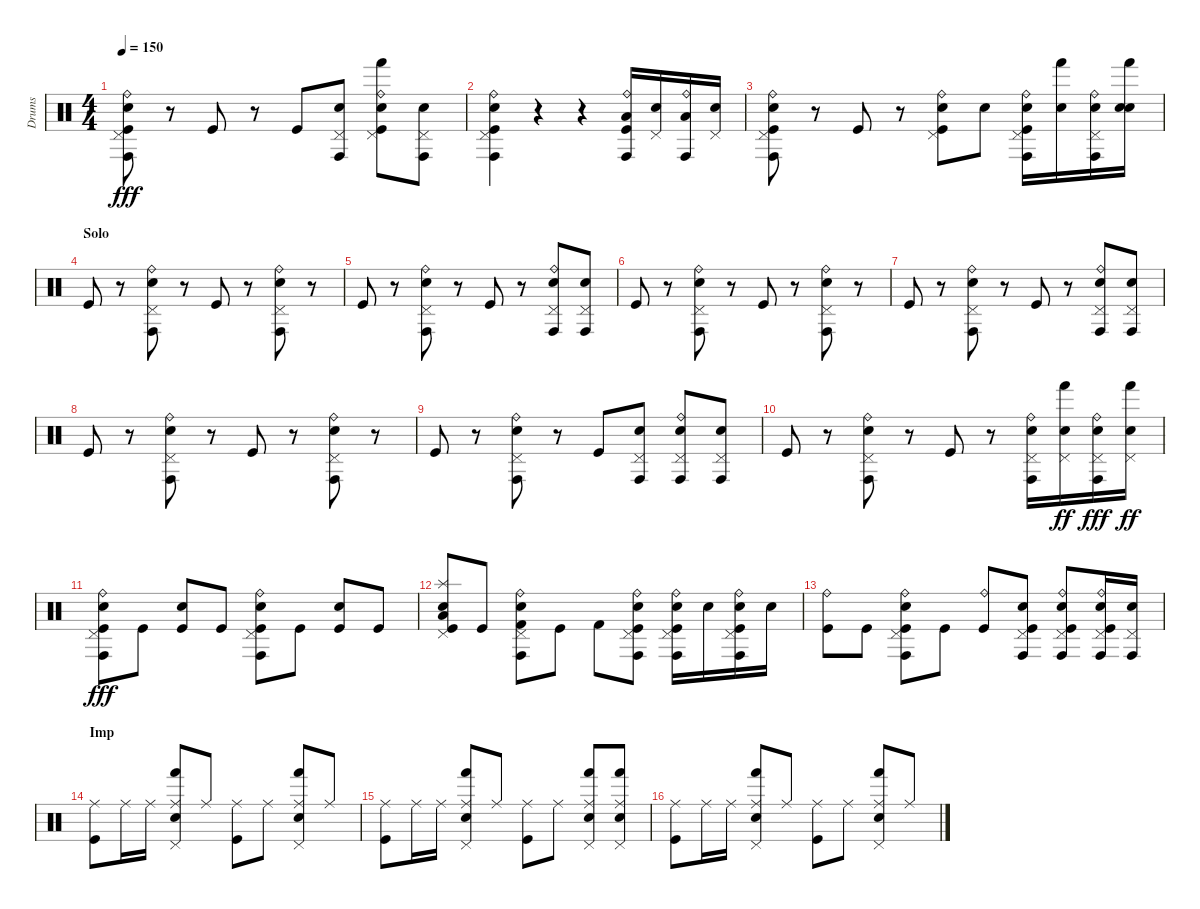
\track ("Drums" "Drums") {instrument percussion}
\staff {score}
\articulation defaults
\ts (4 4)
\tempo 150
\clef neutral
\ks c
("Ride (bell)" "Pedal Hi-Hat (hit)" "Conga high (hit)" "Electric Snare (hit)" "Kick (hit)").8{dy fff} r.8 "Kick (hit)".8 r.8 "Kick (hit)".8 ("Pedal Hi-Hat (hit)" "Conga high (hit)" "Electric Snare (hit)").8 ("Ride (bell)" "Pedal Hi-Hat (hit)" "Hand (hit)" "Electric Snare (hit)" "Kick (hit)").8 ("Pedal Hi-Hat (hit)" "Conga high (hit)" "Electric Snare (hit)").8 |
("Ride (bell)" "Pedal Hi-Hat (hit)" "Conga high (hit)" "Electric Snare (hit)" "Kick (hit)").4 r.4 r.4 ("Ride (bell)" "Conga high (hit)" "Low Floor Tom (hit)" "Kick (hit)").16 ("Pedal Hi-Hat (hit)" "Electric Snare (hit)").16 ("Ride (bell)" "Conga high (hit)" "Low Floor Tom (hit)").16 ("Pedal Hi-Hat (hit)" "Electric Snare (hit)").16 |
("Ride (bell)" "Pedal Hi-Hat (hit)" "Conga high (hit)" "Electric Snare (hit)" "Kick (hit)").8 r.8 "Kick (hit)".8 r.8 ("Ride (bell)" "Pedal Hi-Hat (hit)" "Electric Snare (hit)" "Kick (hit)").8 "Electric Snare (hit)".8 ("Ride (bell)" "Pedal Hi-Hat (hit)" "Conga high (hit)" "Electric Snare (hit)" "Kick (hit)").16 ("Hand (hit)" "Electric Snare (hit)").16 ("Ride (bell)" "Pedal Hi-Hat (hit)" "Conga high (hit)" "Electric Snare (hit)").16 ("Hand (hit)" "Snare (hit)" "Electric Snare (hit)").16 |
\section ("" "Solo")
"Kick (hit)".8 r.8 ("Ride (bell)" "Pedal Hi-Hat (hit)" "Conga high (hit)" "Electric Snare (hit)").8 r.8 "Kick (hit)".8 r.8 ("Ride (bell)" "Pedal Hi-Hat (hit)" "Conga high (hit)" "Electric Snare (hit)").8 r.8 |
"Kick (hit)".8 r.8 ("Ride (bell)" "Pedal Hi-Hat (hit)" "Conga high (hit)" "Electric Snare (hit)").8 r.8 "Kick (hit)".8 r.8 ("Ride (bell)" "Pedal Hi-Hat (hit)" "Conga high (hit)" "Electric Snare (hit)").8 ("Pedal Hi-Hat (hit)" "Conga high (hit)" "Electric Snare (hit)").8 |
"Kick (hit)".8 r.8 ("Ride (bell)" "Pedal Hi-Hat (hit)" "Conga high (hit)" "Electric Snare (hit)").8 r.8 "Kick (hit)".8 r.8 ("Ride (bell)" "Pedal Hi-Hat (hit)" "Conga high (hit)" "Electric Snare (hit)").8 r.8 |
"Kick (hit)".8 r.8 ("Ride (bell)" "Pedal Hi-Hat (hit)" "Conga high (hit)" "Electric Snare (hit)").8 r.8 "Kick (hit)".8 r.8 ("Ride (bell)" "Pedal Hi-Hat (hit)" "Conga high (hit)" "Electric Snare (hit)").8 ("Pedal Hi-Hat (hit)" "Conga high (hit)" "Electric Snare (hit)").8 |
"Kick (hit)".8 r.8 ("Ride (bell)" "Pedal Hi-Hat (hit)" "Conga high (hit)" "Electric Snare (hit)").8 r.8 "Kick (hit)".8 r.8 ("Ride (bell)" "Pedal Hi-Hat (hit)" "Conga high (hit)" "Electric Snare (hit)").8 r.8 |
"Kick (hit)".8 r.8 ("Ride (bell)" "Pedal Hi-Hat (hit)" "Conga high (hit)" "Electric Snare (hit)").8 r.8 "Kick (hit)".8 ("Pedal Hi-Hat (hit)" "Conga high (hit)" "Electric Snare (hit)").8 ("Ride (bell)" "Pedal Hi-Hat (hit)" "Conga high (hit)" "Electric Snare (hit)").8 ("Pedal Hi-Hat (hit)" "Conga high (hit)" "Electric Snare (hit)").8 |
"Kick (hit)".8 r.8 ("Ride (bell)" "Pedal Hi-Hat (hit)" "Conga high (hit)" "Electric Snare (hit)").8 r.8 "Kick (hit)".8 r.8 ("Ride (bell)" "Pedal Hi-Hat (hit)" "Conga high (hit)" "Electric Snare (hit)").16 ("Pedal Hi-Hat (hit)" "Hand (hit)" "Electric Snare (hit)").16{dy ff} ("Ride (bell)" "Pedal Hi-Hat (hit)" "Conga high (hit)" "Electric Snare (hit)").16{dy fff} ("Pedal Hi-Hat (hit)" "Hand (hit)" "Electric Snare (hit)").16{dy ff} |
("Ride (bell)" "Pedal Hi-Hat (hit)" "Conga high (hit)" "Electric Snare (hit)" "Kick (hit)").8{dy fff} "Kick (hit)".8 ("Electric Snare (hit)" "Kick (hit)").8 "Kick (hit)".8 ("Ride (bell)" "Pedal Hi-Hat (hit)" "Conga high (hit)" "Electric Snare (hit)" "Kick (hit)").8 "Kick (hit)".8 ("Electric Snare (hit)" "Kick (hit)").8 "Kick (hit)".8 |
("Splash (hit)" "Pedal Hi-Hat (hit)" "Low Tom (hit)" "Electric Snare (hit)" "Kick (hit)").8 "Kick (hit)".8 ("Ride (bell)" "Pedal Hi-Hat (hit)" "Conga high (hit)" "Electric Snare (hit)" "Kick (hit) 2").8 "Kick (hit)".8 "Kick (hit) 2".8 ("Ride (bell)" "Pedal Hi-Hat (hit)" "Conga high (hit)" "Electric Snare (hit)" "Kick (hit)").8 ("Ride (bell)" "Pedal Hi-Hat (hit)" "Conga high (hit)" "Electric Snare (hit)" "Kick (hit)").16 "Electric Snare (hit)".16 ("Ride (bell)" "Pedal Hi-Hat (hit)" "Conga high (hit)" "Electric Snare (hit)" "Kick (hit)").16 "Electric Snare (hit)".16 |
("Ride (bell)" "Kick (hit)").8 "Kick (hit)".8 ("Ride (bell)" "Pedal Hi-Hat (hit)" "Conga high (hit)" "Electric Snare (hit)" "Kick (hit)").8 "Kick (hit)".8 ("Ride (bell)" "Kick (hit)").8 ("Pedal Hi-Hat (hit)" "Conga high (hit)" "Electric Snare (hit)" "Kick (hit)").8 ("Ride (bell)" "Pedal Hi-Hat (hit)" "Conga high (hit)" "Electric Snare (hit)" "Kick (hit)").8 ("Ride (bell)" "Pedal Hi-Hat (hit)" "Conga high (hit)" "Electric Snare (hit)" "Kick (hit)").16 ("Pedal Hi-Hat (hit)" "Conga high (hit)" "Electric Snare (hit)").16 |
\section ("" "Imp")
("Ride (middle)" "Kick (hit)").8 "Ride (middle)".16 "Ride (middle)".16 ("Ride (middle)" "Pedal Hi-Hat (hit)" "Hand (hit)" "Electric Snare (hit)").8 "Ride (middle)".8 ("Ride (middle)" "Kick (hit)").8 "Ride (middle)".8 ("Ride (middle)" "Pedal Hi-Hat (hit)" "Hand (hit)" "Electric Snare (hit)").8 "Ride (middle)".8 |
("Ride (middle)" "Kick (hit)").8 "Ride (middle)".16 "Ride (middle)".16 ("Ride (middle)" "Pedal Hi-Hat (hit)" "Hand (hit)" "Electric Snare (hit)").8 "Ride (middle)".8 ("Ride (middle)" "Kick (hit)").8 "Ride (middle)".8 ("Ride (middle)" "Pedal Hi-Hat (hit)" "Hand (hit)" "Electric Snare (hit)").8 ("Ride (middle)" "Pedal Hi-Hat (hit)" "Hand (hit)" "Electric Snare (hit)").8 |
("Ride (middle)" "Kick (hit)").8 "Ride (middle)".16 "Ride (middle)".16 ("Ride (middle)" "Pedal Hi-Hat (hit)" "Hand (hit)" "Electric Snare (hit)").8 "Ride (middle)".8 ("Ride (middle)" "Kick (hit)").8 "Ride (middle)".8 ("Ride (middle)" "Pedal Hi-Hat (hit)" "Hand (hit)" "Electric Snare (hit)").8 "Ride (middle)".8
